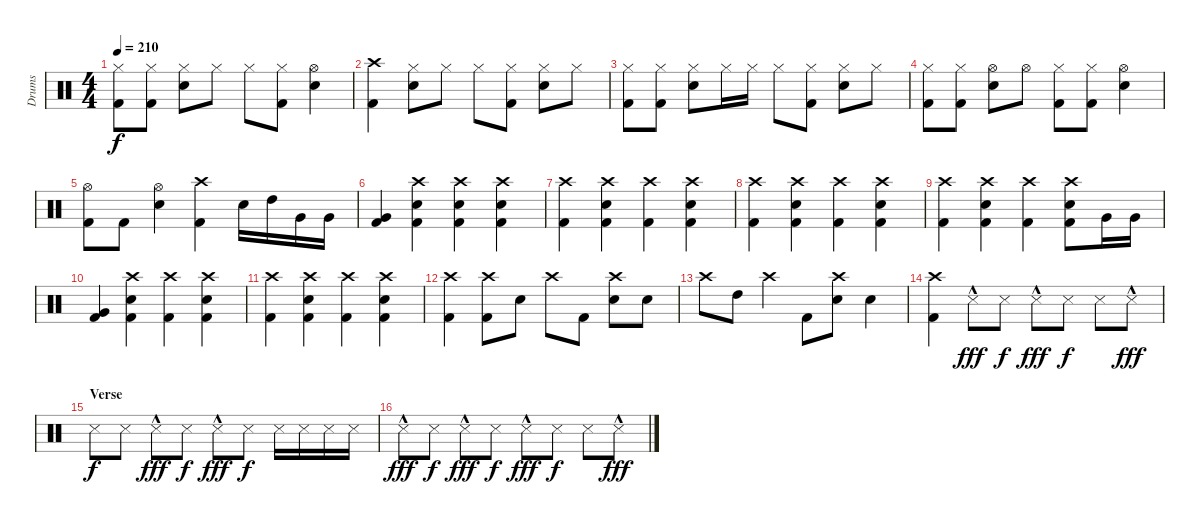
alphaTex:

\track ("Drums" "Drums") {instrument percussion}
\staff {score}
\articulation defaults
\ts (4 4)
\tempo 210
\clef neutral
\ks c
("Hi-Hat (closed)" "Kick (hit) 2").8{dy f} ("Hi-Hat (closed)" "Kick (hit) 2").8 ("Hi-Hat (closed)" "Snare (hit) 2").8 "Hi-Hat (closed)".8 "Hi-Hat (closed)".8 ("Hi-Hat (closed)" "Kick (hit) 2").8 ("Hi-Hat (open)" "Snare (hit) 2").4 |
("Crash high (hit)" "Kick (hit) 2").4 ("Hi-Hat (closed)" "Snare (hit) 2").8 "Hi-Hat (closed)".8 "Hi-Hat (closed)".8 ("Hi-Hat (closed)" "Kick (hit) 2").8 ("Hi-Hat (closed)" "Snare (hit) 2").8 "Hi-Hat (closed)".8 |
("Hi-Hat (closed)" "Kick (hit) 2").8 ("Hi-Hat (closed)" "Kick (hit) 2").8 ("Hi-Hat (closed)" "Snare (hit) 2").8 "Hi-Hat (closed)".16 "Hi-Hat (closed)".16 "Hi-Hat (closed)".8 ("Hi-Hat (closed)" "Kick (hit) 2").8 ("Hi-Hat (closed)" "Snare (hit) 2").8 "Hi-Hat (closed)".8 |
("Hi-Hat (closed)" "Kick (hit) 2").8 ("Hi-Hat (closed)" "Kick (hit) 2").8 ("Hi-Hat (open)" "Snare (hit) 2").8 "Hi-Hat (open)".8 ("Hi-Hat (closed)" "Kick (hit) 2").8 ("Hi-Hat (closed)" "Kick (hit) 2").8 ("Hi-Hat (open)" "Snare (hit) 2").4 |
("Hi-Hat (open)" "Kick (hit) 2").8 "Kick (hit) 2".8 ("Hi-Hat (open)" "Snare (hit) 2").4 ("Crash high (hit)" "Kick (hit) 2").4 "Snare (hit) 2".16 "High Tom (hit)".16 "Very Low Tom (hit)".16 "Very Low Tom (hit)".16 |
("Very Low Tom (hit)" "Kick (hit) 2").4 ("Crash high (hit)" "Snare (hit) 2" "Kick (hit) 2").4 ("Crash high (hit)" "Snare (hit) 2" "Kick (hit) 2").4 ("Crash high (hit)" "Snare (hit) 2" "Kick (hit) 2").4 |
("Crash high (hit)" "Kick (hit) 2").4 ("Crash high (hit)" "Snare (hit) 2" "Kick (hit) 2").4 ("Crash high (hit)" "Kick (hit) 2").4 ("Crash high (hit)" "Snare (hit) 2" "Kick (hit) 2").4 |
("Crash high (hit)" "Kick (hit) 2").4 ("Crash high (hit)" "Snare (hit) 2" "Kick (hit) 2").4 ("Crash high (hit)" "Kick (hit) 2").4 ("Crash high (hit)" "Snare (hit) 2" "Kick (hit) 2").4 |
("Crash high (hit)" "Kick (hit) 2").4 ("Crash high (hit)" "Snare (hit) 2" "Kick (hit) 2").4 ("Crash high (hit)" "Kick (hit) 2").4 ("Crash high (hit)" "Snare (hit) 2" "Kick (hit) 2").8 "Very Low Tom (hit)".16 "Very Low Tom (hit)".16 |
("Very Low Tom (hit)" "Kick (hit) 2").4 ("Crash high (hit)" "Snare (hit) 2" "Kick (hit) 2").4 ("Crash high (hit)" "Kick (hit) 2").4 ("Crash high (hit)" "Snare (hit) 2" "Kick (hit) 2").4 |
("Crash high (hit)" "Kick (hit) 2").4 ("Crash high (hit)" "Snare (hit) 2" "Kick (hit) 2").4 ("Crash high (hit)" "Kick (hit) 2").4 ("Crash high (hit)" "Snare (hit) 2" "Kick (hit) 2").4 |
("Crash high (hit)" "Kick (hit) 2").4 ("Crash high (hit)" "Kick (hit) 2").8 "Snare (hit) 2".8 "Crash high (hit)".8 "Kick (hit) 2".8 ("Crash high (hit)" "Snare (hit) 2").8 "Snare (hit) 2".8 |
"Crash high (hit)".8 "High Tom (hit)".8 "Crash high (hit)".4 "Kick (hit) 2".8 ("Crash high (hit)" "Snare (hit) 2").8 "Snare (hit) 2".4 |
("Crash high (hit)" "Kick (hit) 2").4 "Metronome (hit)"{hac}.8{dy fff} "Metronome (hit)".8{dy f} "Metronome (hit)"{hac}.8{dy fff} "Metronome (hit)".8{dy f} "Metronome (hit)".8 "Metronome (hit)"{hac}.8{dy fff} |
\section ("" "Verse")
"Metronome (hit)".8{dy f} "Metronome (hit)".8 "Metronome (hit)"{hac}.8{dy fff} "Metronome (hit)".8{dy f} "Metronome (hit)"{hac}.8{dy fff} "Metronome (hit)".8{dy f} "Metronome (hit)".16 "Metronome (hit)".16 "Metronome (hit)".16 "Metronome (hit)".16 |
"Metronome (hit)"{hac}.8{dy fff} "Metronome (hit)".8{dy f} "Metronome (hit)"{hac}.8{dy fff} "Metronome (hit)".8{dy f} "Metronome (hit)"{hac}.8{dy fff} "Metronome (hit)".8{dy f} "Metronome (hit)".8 "Metronome (hit)"{hac}.8{dy fff}
